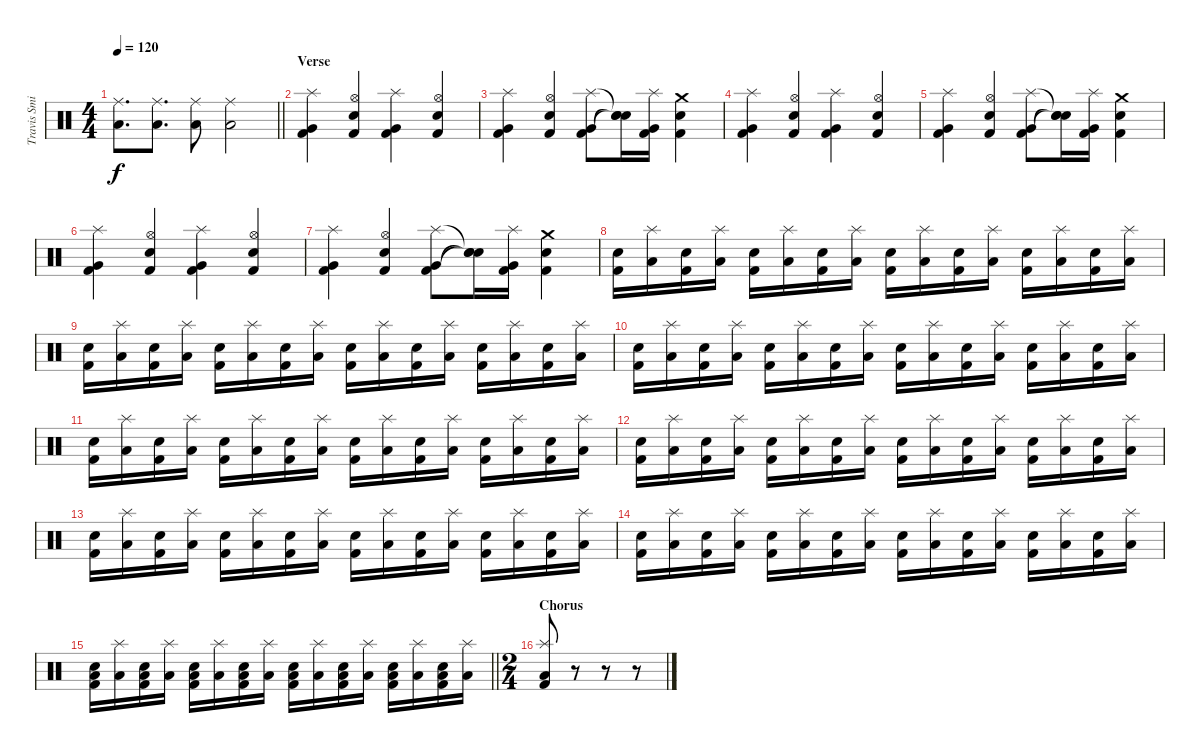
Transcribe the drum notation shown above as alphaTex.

\track ("Travis Smith" "Travis Smi") {instrument percussion}
\staff {score}
\articulation defaults
\ts (4 4)
\tempo 120
\clef neutral
\barLineRight lightlight
\ks c
("Ride (middle)" "Low Floor Tom (hit)").8{d dy f} ("Ride (middle)" "Low Floor Tom (hit)").8{d} ("Ride (middle)" "Low Floor Tom (hit)").8 ("Ride (middle)" "Low Floor Tom (hit)").2 |
\section ("" "Verse")
("Splash (hit)" "Very Low Tom (hit)" "Kick (hit) 2").4 ("Hi-Hat (open)" "Snare (hit) 2" "Kick (hit) 2").4 ("Splash (hit)" "Very Low Tom (hit)" "Kick (hit) 2").4 ("Hi-Hat (open)" "Snare (hit) 2" "Kick (hit) 2").4 |
("Splash (hit)" "Very Low Tom (hit)" "Kick (hit) 2").4 ("Hi-Hat (open)" "Snare (hit) 2" "Kick (hit) 2").4 ("Splash (hit)" "Very Low Tom (hit)" "Kick (hit) 2").8 ("Snare (hit)"{t} "Snare (hit)"{t} "Snare (hit)"{t}).16 ("Splash (hit)" "Very Low Tom (hit)" "Kick (hit) 2").16 ("Crash medium (hit)" "Snare (hit) 2" "Kick (hit) 2").4 |
("Splash (hit)" "Very Low Tom (hit)" "Kick (hit) 2").4 ("Hi-Hat (open)" "Snare (hit) 2" "Kick (hit) 2").4 ("Splash (hit)" "Very Low Tom (hit)" "Kick (hit) 2").4 ("Hi-Hat (open)" "Snare (hit) 2" "Kick (hit) 2").4 |
("Splash (hit)" "Very Low Tom (hit)" "Kick (hit) 2").4 ("Hi-Hat (open)" "Snare (hit) 2" "Kick (hit) 2").4 ("Splash (hit)" "Very Low Tom (hit)" "Kick (hit) 2").8 ("Snare (hit)"{t} "Snare (hit)"{t} "Snare (hit)"{t}).16 ("Splash (hit)" "Very Low Tom (hit)" "Kick (hit) 2").16 ("Crash medium (hit)" "Snare (hit) 2" "Kick (hit) 2").4 |
("Splash (hit)" "Very Low Tom (hit)" "Kick (hit) 2").4 ("Hi-Hat (open)" "Snare (hit) 2" "Kick (hit) 2").4 ("Splash (hit)" "Very Low Tom (hit)" "Kick (hit) 2").4 ("Hi-Hat (open)" "Snare (hit) 2" "Kick (hit) 2").4 |
("Splash (hit)" "Very Low Tom (hit)" "Kick (hit) 2").4 ("Hi-Hat (open)" "Snare (hit) 2" "Kick (hit) 2").4 ("Splash (hit)" "Very Low Tom (hit)" "Kick (hit) 2").8 ("Snare (hit)"{t} "Snare (hit)"{t} "Snare (hit)"{t}).16 ("Splash (hit)" "Very Low Tom (hit)" "Kick (hit) 2").16 ("Crash medium (hit)" "Snare (hit) 2" "Kick (hit) 2").4 |
("Snare (hit) 2" "Kick (hit) 2").16 ("Splash (hit)" "Low Floor Tom (hit)").16 ("Snare (hit) 2" "Kick (hit) 2").16 ("Splash (hit)" "Low Floor Tom (hit)").16 ("Snare (hit) 2" "Kick (hit) 2").16 ("Splash (hit)" "Low Floor Tom (hit)").16 ("Snare (hit) 2" "Kick (hit) 2").16 ("Splash (hit)" "Low Floor Tom (hit)").16 ("Snare (hit) 2" "Kick (hit) 2").16 ("Splash (hit)" "Low Floor Tom (hit)").16 ("Snare (hit) 2" "Kick (hit) 2").16 ("Splash (hit)" "Low Floor Tom (hit)").16 ("Snare (hit) 2" "Kick (hit) 2").16 ("Splash (hit)" "Low Floor Tom (hit)").16 ("Snare (hit) 2" "Kick (hit) 2").16 ("Splash (hit)" "Low Floor Tom (hit)").16 |
("Snare (hit) 2" "Kick (hit) 2").16 ("Splash (hit)" "Low Floor Tom (hit)").16 ("Snare (hit) 2" "Kick (hit) 2").16 ("Splash (hit)" "Low Floor Tom (hit)").16 ("Snare (hit) 2" "Kick (hit) 2").16 ("Splash (hit)" "Low Floor Tom (hit)").16 ("Snare (hit) 2" "Kick (hit) 2").16 ("Splash (hit)" "Low Floor Tom (hit)").16 ("Snare (hit) 2" "Kick (hit) 2").16 ("Splash (hit)" "Low Floor Tom (hit)").16 ("Snare (hit) 2" "Kick (hit) 2").16 ("Splash (hit)" "Low Floor Tom (hit)").16 ("Snare (hit) 2" "Kick (hit) 2").16 ("Splash (hit)" "Low Floor Tom (hit)").16 ("Snare (hit) 2" "Kick (hit) 2").16 ("Splash (hit)" "Low Floor Tom (hit)").16 |
("Snare (hit) 2" "Kick (hit) 2").16 ("Splash (hit)" "Low Floor Tom (hit)").16 ("Snare (hit) 2" "Kick (hit) 2").16 ("Splash (hit)" "Low Floor Tom (hit)").16 ("Snare (hit) 2" "Kick (hit) 2").16 ("Splash (hit)" "Low Floor Tom (hit)").16 ("Snare (hit) 2" "Kick (hit) 2").16 ("Splash (hit)" "Low Floor Tom (hit)").16 ("Snare (hit) 2" "Kick (hit) 2").16 ("Splash (hit)" "Low Floor Tom (hit)").16 ("Snare (hit) 2" "Kick (hit) 2").16 ("Splash (hit)" "Low Floor Tom (hit)").16 ("Snare (hit) 2" "Kick (hit) 2").16 ("Splash (hit)" "Low Floor Tom (hit)").16 ("Snare (hit) 2" "Kick (hit) 2").16 ("Splash (hit)" "Low Floor Tom (hit)").16 |
("Snare (hit) 2" "Kick (hit) 2").16 ("Splash (hit)" "Low Floor Tom (hit)").16 ("Snare (hit) 2" "Kick (hit) 2").16 ("Splash (hit)" "Low Floor Tom (hit)").16 ("Snare (hit) 2" "Kick (hit) 2").16 ("Splash (hit)" "Low Floor Tom (hit)").16 ("Snare (hit) 2" "Kick (hit) 2").16 ("Splash (hit)" "Low Floor Tom (hit)").16 ("Snare (hit) 2" "Kick (hit) 2").16 ("Splash (hit)" "Low Floor Tom (hit)").16 ("Snare (hit) 2" "Kick (hit) 2").16 ("Splash (hit)" "Low Floor Tom (hit)").16 ("Snare (hit) 2" "Kick (hit) 2").16 ("Splash (hit)" "Low Floor Tom (hit)").16 ("Snare (hit) 2" "Kick (hit) 2").16 ("Splash (hit)" "Low Floor Tom (hit)").16 |
("Snare (hit) 2" "Kick (hit) 2").16 ("Splash (hit)" "Low Floor Tom (hit)").16 ("Snare (hit) 2" "Kick (hit) 2").16 ("Splash (hit)" "Low Floor Tom (hit)").16 ("Snare (hit) 2" "Kick (hit) 2").16 ("Splash (hit)" "Low Floor Tom (hit)").16 ("Snare (hit) 2" "Kick (hit) 2").16 ("Splash (hit)" "Low Floor Tom (hit)").16 ("Snare (hit) 2" "Kick (hit) 2").16 ("Splash (hit)" "Low Floor Tom (hit)").16 ("Snare (hit) 2" "Kick (hit) 2").16 ("Splash (hit)" "Low Floor Tom (hit)").16 ("Snare (hit) 2" "Kick (hit) 2").16 ("Splash (hit)" "Low Floor Tom (hit)").16 ("Snare (hit) 2" "Kick (hit) 2").16 ("Splash (hit)" "Low Floor Tom (hit)").16 |
("Snare (hit) 2" "Kick (hit) 2").16 ("Splash (hit)" "Low Floor Tom (hit)").16 ("Snare (hit) 2" "Kick (hit) 2").16 ("Splash (hit)" "Low Floor Tom (hit)").16 ("Snare (hit) 2" "Kick (hit) 2").16 ("Splash (hit)" "Low Floor Tom (hit)").16 ("Snare (hit) 2" "Kick (hit) 2").16 ("Splash (hit)" "Low Floor Tom (hit)").16 ("Snare (hit) 2" "Kick (hit) 2").16 ("Splash (hit)" "Low Floor Tom (hit)").16 ("Snare (hit) 2" "Kick (hit) 2").16 ("Splash (hit)" "Low Floor Tom (hit)").16 ("Snare (hit) 2" "Kick (hit) 2").16 ("Splash (hit)" "Low Floor Tom (hit)").16 ("Snare (hit) 2" "Kick (hit) 2").16 ("Splash (hit)" "Low Floor Tom (hit)").16 |
("Snare (hit) 2" "Kick (hit) 2").16 ("Splash (hit)" "Low Floor Tom (hit)").16 ("Snare (hit) 2" "Kick (hit) 2").16 ("Splash (hit)" "Low Floor Tom (hit)").16 ("Snare (hit) 2" "Kick (hit) 2").16 ("Splash (hit)" "Low Floor Tom (hit)").16 ("Snare (hit) 2" "Kick (hit) 2").16 ("Splash (hit)" "Low Floor Tom (hit)").16 ("Snare (hit) 2" "Kick (hit) 2").16 ("Splash (hit)" "Low Floor Tom (hit)").16 ("Snare (hit) 2" "Kick (hit) 2").16 ("Splash (hit)" "Low Floor Tom (hit)").16 ("Snare (hit) 2" "Kick (hit) 2").16 ("Splash (hit)" "Low Floor Tom (hit)").16 ("Snare (hit) 2" "Kick (hit) 2").16 ("Splash (hit)" "Low Floor Tom (hit)").16 |
\barLineRight lightlight
("Snare (hit) 2" "Low Tom (hit)" "Kick (hit) 2").16 ("Splash (hit)" "Low Tom (hit)").16 ("Snare (hit) 2" "Low Tom (hit)" "Kick (hit) 2").16 ("Splash (hit)" "Low Tom (hit)").16 ("Snare (hit) 2" "Low Tom (hit)" "Kick (hit) 2").16 ("Splash (hit)" "Low Tom (hit)").16 ("Snare (hit) 2" "Low Tom (hit)" "Kick (hit) 2").16 ("Splash (hit)" "Low Tom (hit)").16 ("Snare (hit) 2" "Low Tom (hit)" "Kick (hit) 2").16 ("Splash (hit)" "Low Tom (hit)").16 ("Snare (hit) 2" "Low Tom (hit)" "Kick (hit) 2").16 ("Splash (hit)" "Low Tom (hit)").16 ("Snare (hit) 2" "Low Tom (hit)" "Kick (hit) 2").16 ("Splash (hit)" "Low Tom (hit)").16 ("Snare (hit) 2" "Low Tom (hit)" "Kick (hit) 2").16 ("Splash (hit)" "Low Tom (hit)").16 |
\ts (2 4)
\section ("" "Chorus")
("Splash (hit)" "Low Floor Tom (hit)" "Kick (hit) 2").8 r.8 r.8 r.8
